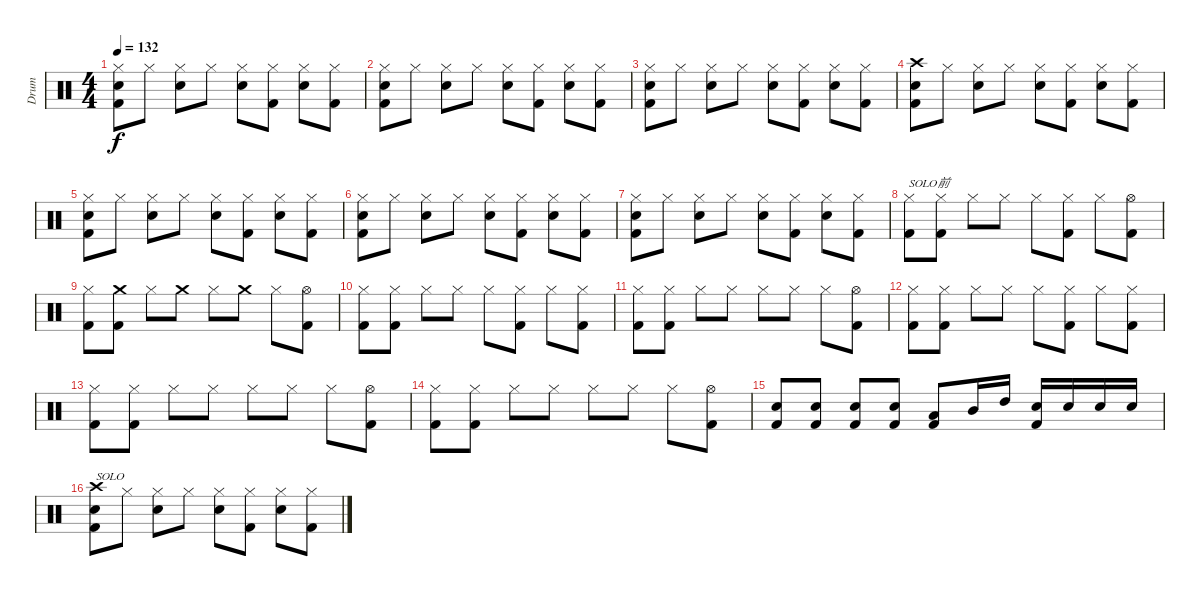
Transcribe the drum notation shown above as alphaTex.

\track ("Drum" "Drum") {instrument percussion}
\staff {score}
\articulation defaults
\ts (4 4)
\tempo 132
\clef neutral
\ks c
("Hi-Hat (closed)" "Electric Snare (hit)" "Kick (hit) 2").8{dy f} "Hi-Hat (closed)".8 ("Hi-Hat (closed)" "Electric Snare (hit)").8 "Hi-Hat (closed)".8 ("Hi-Hat (closed)" "Electric Snare (hit)").8 ("Hi-Hat (closed)" "Kick (hit) 2").8 ("Hi-Hat (closed)" "Electric Snare (hit)").8 ("Hi-Hat (closed)" "Kick (hit) 2").8 |
("Hi-Hat (closed)" "Electric Snare (hit)" "Kick (hit) 2").8 "Hi-Hat (closed)".8 ("Hi-Hat (closed)" "Electric Snare (hit)").8 "Hi-Hat (closed)".8 ("Hi-Hat (closed)" "Electric Snare (hit)").8 ("Hi-Hat (closed)" "Kick (hit) 2").8 ("Hi-Hat (closed)" "Electric Snare (hit)").8 ("Hi-Hat (closed)" "Kick (hit) 2").8 |
("Hi-Hat (closed)" "Electric Snare (hit)" "Kick (hit) 2").8 "Hi-Hat (closed)".8 ("Hi-Hat (closed)" "Electric Snare (hit)").8 "Hi-Hat (closed)".8 ("Hi-Hat (closed)" "Electric Snare (hit)").8 ("Hi-Hat (closed)" "Kick (hit) 2").8 ("Hi-Hat (closed)" "Electric Snare (hit)").8 ("Hi-Hat (closed)" "Kick (hit) 2").8 |
("Crash high (hit)" "Electric Snare (hit)" "Kick (hit) 2").8 "Hi-Hat (closed)".8 ("Hi-Hat (closed)" "Electric Snare (hit)").8 "Hi-Hat (closed)".8 ("Hi-Hat (closed)" "Electric Snare (hit)").8 ("Hi-Hat (closed)" "Kick (hit) 2").8 ("Hi-Hat (closed)" "Electric Snare (hit)").8 ("Hi-Hat (closed)" "Kick (hit) 2").8 |
("Hi-Hat (closed)" "Electric Snare (hit)" "Kick (hit) 2").8 "Hi-Hat (closed)".8 ("Hi-Hat (closed)" "Electric Snare (hit)").8 "Hi-Hat (closed)".8 ("Hi-Hat (closed)" "Electric Snare (hit)").8 ("Hi-Hat (closed)" "Kick (hit) 2").8 ("Hi-Hat (closed)" "Electric Snare (hit)").8 ("Hi-Hat (closed)" "Kick (hit) 2").8 |
("Hi-Hat (closed)" "Electric Snare (hit)" "Kick (hit) 2").8 "Hi-Hat (closed)".8 ("Hi-Hat (closed)" "Electric Snare (hit)").8 "Hi-Hat (closed)".8 ("Hi-Hat (closed)" "Electric Snare (hit)").8 ("Hi-Hat (closed)" "Kick (hit) 2").8 ("Hi-Hat (closed)" "Electric Snare (hit)").8 ("Hi-Hat (closed)" "Kick (hit) 2").8 |
("Hi-Hat (closed)" "Electric Snare (hit)" "Kick (hit) 2").8 "Hi-Hat (closed)".8 ("Hi-Hat (closed)" "Electric Snare (hit)").8 "Hi-Hat (closed)".8 ("Hi-Hat (closed)" "Electric Snare (hit)").8 ("Hi-Hat (closed)" "Kick (hit) 2").8 ("Hi-Hat (closed)" "Electric Snare (hit)").8 ("Hi-Hat (closed)" "Kick (hit) 2").8 |
("Hi-Hat (closed)" "Kick (hit) 2").8{txt "SOLO前"} ("Hi-Hat (closed)" "Kick (hit) 2").8 "Hi-Hat (closed)".8 "Hi-Hat (closed)".8 "Hi-Hat (closed)".8 ("Hi-Hat (closed)" "Kick (hit) 2").8 "Hi-Hat (closed)".8 ("Hi-Hat (open)" "Kick (hit) 2").8 |
("Hi-Hat (closed)" "Kick (hit) 2").8 ("Crash medium (hit)" "Kick (hit) 2").8 "Hi-Hat (closed)".8 "Crash medium (hit)".8 "Hi-Hat (closed)".8 "Crash medium (hit)".8 "Hi-Hat (closed)".8 ("Hi-Hat (open)" "Kick (hit) 2").8 |
("Hi-Hat (closed)" "Kick (hit) 2").8 ("Hi-Hat (closed)" "Kick (hit) 2").8 "Hi-Hat (closed)".8 "Hi-Hat (closed)".8 "Hi-Hat (closed)".8 ("Hi-Hat (closed)" "Kick (hit) 2").8 "Hi-Hat (closed)".8 ("Hi-Hat (closed)" "Kick (hit) 2").8 |
("Hi-Hat (closed)" "Kick (hit) 2").8 ("Hi-Hat (closed)" "Kick (hit) 2").8 "Hi-Hat (closed)".8 "Hi-Hat (closed)".8 "Hi-Hat (closed)".8 "Hi-Hat (closed)".8 "Hi-Hat (closed)".8 ("Hi-Hat (open)" "Kick (hit) 2").8 |
("Hi-Hat (closed)" "Kick (hit) 2").8 ("Hi-Hat (closed)" "Kick (hit) 2").8 "Hi-Hat (closed)".8 "Hi-Hat (closed)".8 "Hi-Hat (closed)".8 ("Hi-Hat (closed)" "Kick (hit) 2").8 "Hi-Hat (closed)".8 ("Hi-Hat (closed)" "Kick (hit) 2").8 |
("Hi-Hat (closed)" "Kick (hit) 2").8 ("Hi-Hat (closed)" "Kick (hit) 2").8 "Hi-Hat (closed)".8 "Hi-Hat (closed)".8 "Hi-Hat (closed)".8 "Hi-Hat (closed)".8 "Hi-Hat (closed)".8 ("Hi-Hat (open)" "Kick (hit) 2").8 |
("Hi-Hat (closed)" "Kick (hit) 2").8 ("Hi-Hat (closed)" "Kick (hit) 2").8 "Hi-Hat (closed)".8 "Hi-Hat (closed)".8 "Hi-Hat (closed)".8 "Hi-Hat (closed)".8 "Hi-Hat (closed)".8 ("Hi-Hat (open)" "Kick (hit) 2").8 |
("Electric Snare (hit)" "Kick (hit) 2").8 ("Electric Snare (hit)" "Kick (hit) 2").8 ("Electric Snare (hit)" "Kick (hit) 2").8 ("Electric Snare (hit)" "Kick (hit) 2").8 ("Low Tom (hit)" "Kick (hit) 2").8 "Mid Tom (hit)".16 "High Tom (hit)".16 ("Electric Snare (hit)" "Kick (hit) 2").16 "Electric Snare (hit)".16 "Electric Snare (hit)".16 "Electric Snare (hit)".16 |
("Crash high (hit)" "Electric Snare (hit)" "Kick (hit) 2").8{txt "SOLO"} "Hi-Hat (closed)".8 ("Hi-Hat (closed)" "Electric Snare (hit)").8 "Hi-Hat (closed)".8 ("Hi-Hat (closed)" "Electric Snare (hit)").8 ("Hi-Hat (closed)" "Kick (hit) 2").8 ("Hi-Hat (closed)" "Electric Snare (hit)").8 ("Hi-Hat (closed)" "Kick (hit) 2").8
